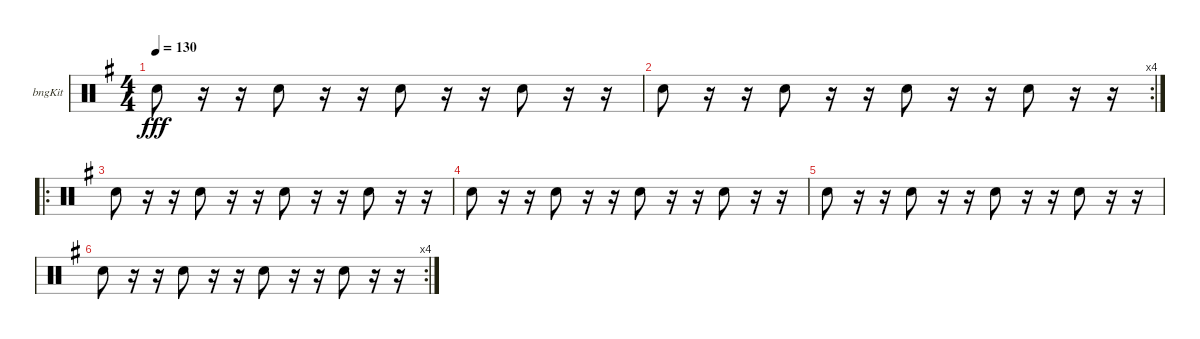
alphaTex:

\bracketExtendMode groupsimilarinstruments
\firstSystemTrackNameOrientation horizontal
\otherSystemsTrackNameOrientation horizontal
\track ("Bongos" "bngKit") {instrument percussion}
\staff {score}
\articulation defaults
\ts (4 4)
\tempo 130
\clef neutral
\ks eminor "Snare (hit) 2".8{dy fff}
r.16 r.16 "Snare (hit) 2".8 r.16 r.16 "Snare (hit) 2".8 r.16 r.16 "Snare (hit) 2".8 r.16 r.16 |
\rc 4 "Snare (hit) 2".8
r.16 r.16 "Snare (hit) 2".8 r.16 r.16 "Snare (hit) 2".8 r.16 r.16 "Snare (hit) 2".8 r.16 r.16 |
\ro "Snare (hit) 2".8
r.16 r.16 "Snare (hit) 2".8 r.16 r.16 "Snare (hit) 2".8 r.16 r.16 "Snare (hit) 2".8 r.16 r.16 |
"Snare (hit) 2".8 r.16 r.16 "Snare (hit) 2".8 r.16 r.16 "Snare (hit) 2".8 r.16 r.16 "Snare (hit) 2".8 r.16 r.16 |
"Snare (hit) 2".8 r.16 r.16 "Snare (hit) 2".8 r.16 r.16 "Snare (hit) 2".8 r.16 r.16 "Snare (hit) 2".8 r.16 r.16 |
\rc 4 "Snare (hit) 2".8
r.16 r.16 "Snare (hit) 2".8 r.16 r.16 "Snare (hit) 2".8 r.16 r.16 "Snare (hit) 2".8 r.16 r.16
